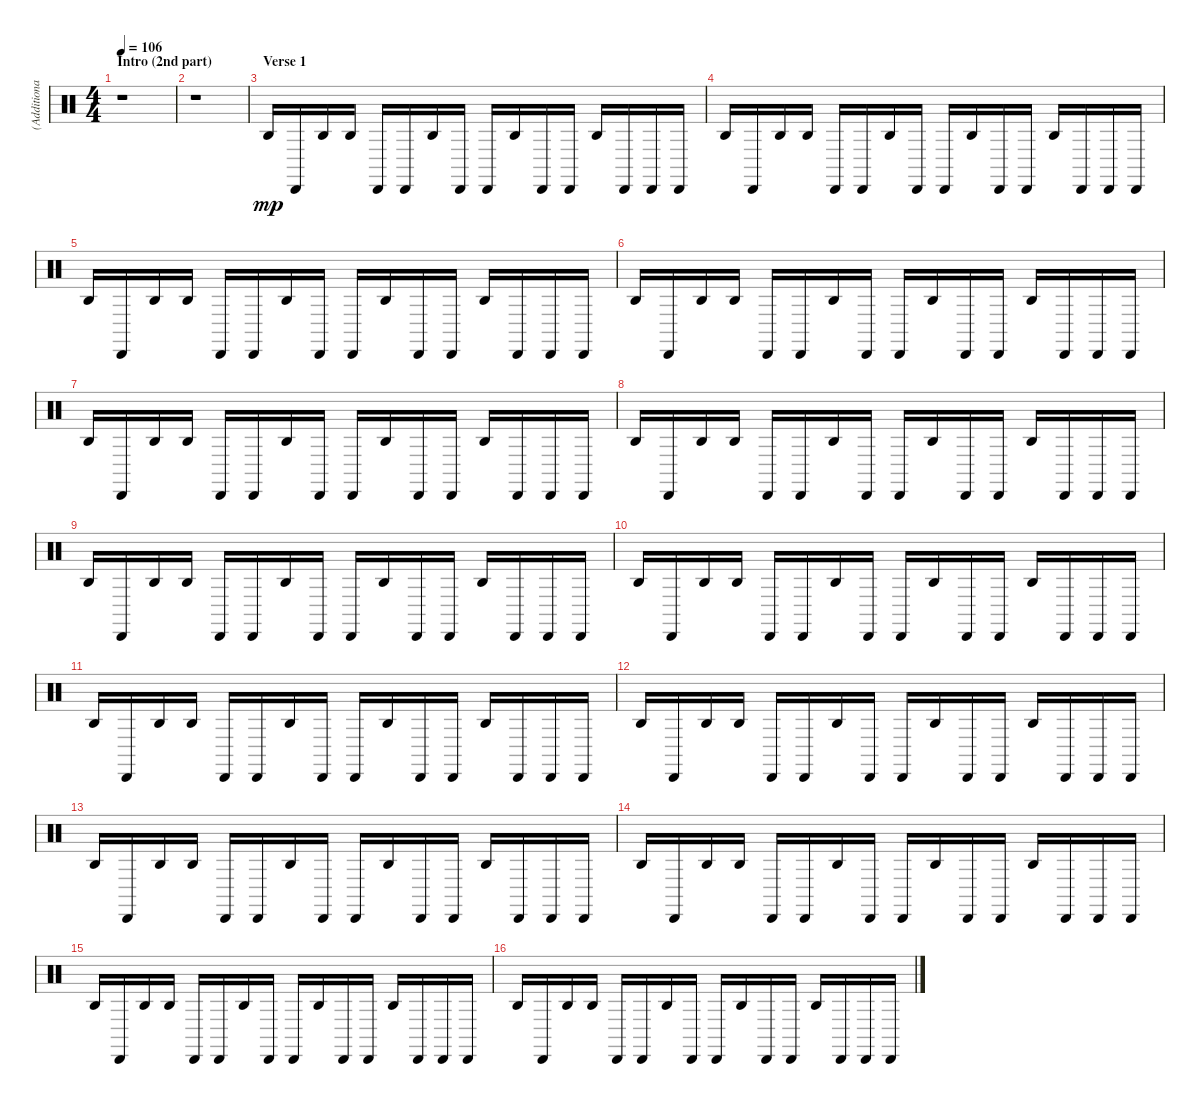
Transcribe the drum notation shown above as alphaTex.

\track ("(Additional Percussions)" "(Additiona") {instrument percussion}
\staff {score}
\articulation defaults
\ts (4 4)
\section ("" "Intro (2nd part)")
\tempo 106
\clef neutral
\ks c
r.1{dy mp} |
r.1 |
\section ("" "Verse 1")
"Agogo high (hit)".16 "Cabasa (hit)".16 "Agogo high (hit)".16 "Agogo high (hit)".16 "Cabasa (hit)".16 "Cabasa (hit)".16 "Agogo high (hit)".16 "Cabasa (hit)".16 "Cabasa (hit)".16 "Agogo high (hit)".16 "Cabasa (hit)".16 "Cabasa (hit)".16 "Agogo high (hit)".16 "Cabasa (hit)".16 "Cabasa (hit)".16 "Cabasa (hit)".16 |
"Agogo high (hit)".16 "Cabasa (hit)".16 "Agogo high (hit)".16 "Agogo high (hit)".16 "Cabasa (hit)".16 "Cabasa (hit)".16 "Agogo high (hit)".16 "Cabasa (hit)".16 "Cabasa (hit)".16 "Agogo high (hit)".16 "Cabasa (hit)".16 "Cabasa (hit)".16 "Agogo high (hit)".16 "Cabasa (hit)".16 "Cabasa (hit)".16 "Cabasa (hit)".16 |
"Agogo high (hit)".16 "Cabasa (hit)".16 "Agogo high (hit)".16 "Agogo high (hit)".16 "Cabasa (hit)".16 "Cabasa (hit)".16 "Agogo high (hit)".16 "Cabasa (hit)".16 "Cabasa (hit)".16 "Agogo high (hit)".16 "Cabasa (hit)".16 "Cabasa (hit)".16 "Agogo high (hit)".16 "Cabasa (hit)".16 "Cabasa (hit)".16 "Cabasa (hit)".16 |
"Agogo high (hit)".16 "Cabasa (hit)".16 "Agogo high (hit)".16 "Agogo high (hit)".16 "Cabasa (hit)".16 "Cabasa (hit)".16 "Agogo high (hit)".16 "Cabasa (hit)".16 "Cabasa (hit)".16 "Agogo high (hit)".16 "Cabasa (hit)".16 "Cabasa (hit)".16 "Agogo high (hit)".16 "Cabasa (hit)".16 "Cabasa (hit)".16 "Cabasa (hit)".16 |
"Agogo high (hit)".16 "Cabasa (hit)".16 "Agogo high (hit)".16 "Agogo high (hit)".16 "Cabasa (hit)".16 "Cabasa (hit)".16 "Agogo high (hit)".16 "Cabasa (hit)".16 "Cabasa (hit)".16 "Agogo high (hit)".16 "Cabasa (hit)".16 "Cabasa (hit)".16 "Agogo high (hit)".16 "Cabasa (hit)".16 "Cabasa (hit)".16 "Cabasa (hit)".16 |
"Agogo high (hit)".16 "Cabasa (hit)".16 "Agogo high (hit)".16 "Agogo high (hit)".16 "Cabasa (hit)".16 "Cabasa (hit)".16 "Agogo high (hit)".16 "Cabasa (hit)".16 "Cabasa (hit)".16 "Agogo high (hit)".16 "Cabasa (hit)".16 "Cabasa (hit)".16 "Agogo high (hit)".16 "Cabasa (hit)".16 "Cabasa (hit)".16 "Cabasa (hit)".16 |
"Agogo high (hit)".16 "Cabasa (hit)".16 "Agogo high (hit)".16 "Agogo high (hit)".16 "Cabasa (hit)".16 "Cabasa (hit)".16 "Agogo high (hit)".16 "Cabasa (hit)".16 "Cabasa (hit)".16 "Agogo high (hit)".16 "Cabasa (hit)".16 "Cabasa (hit)".16 "Agogo high (hit)".16 "Cabasa (hit)".16 "Cabasa (hit)".16 "Cabasa (hit)".16 |
"Agogo high (hit)".16 "Cabasa (hit)".16 "Agogo high (hit)".16 "Agogo high (hit)".16 "Cabasa (hit)".16 "Cabasa (hit)".16 "Agogo high (hit)".16 "Cabasa (hit)".16 "Cabasa (hit)".16 "Agogo high (hit)".16 "Cabasa (hit)".16 "Cabasa (hit)".16 "Agogo high (hit)".16 "Cabasa (hit)".16 "Cabasa (hit)".16 "Cabasa (hit)".16 |
"Agogo high (hit)".16 "Cabasa (hit)".16 "Agogo high (hit)".16 "Agogo high (hit)".16 "Cabasa (hit)".16 "Cabasa (hit)".16 "Agogo high (hit)".16 "Cabasa (hit)".16 "Cabasa (hit)".16 "Agogo high (hit)".16 "Cabasa (hit)".16 "Cabasa (hit)".16 "Agogo high (hit)".16 "Cabasa (hit)".16 "Cabasa (hit)".16 "Cabasa (hit)".16 |
"Agogo high (hit)".16 "Cabasa (hit)".16 "Agogo high (hit)".16 "Agogo high (hit)".16 "Cabasa (hit)".16 "Cabasa (hit)".16 "Agogo high (hit)".16 "Cabasa (hit)".16 "Cabasa (hit)".16 "Agogo high (hit)".16 "Cabasa (hit)".16 "Cabasa (hit)".16 "Agogo high (hit)".16 "Cabasa (hit)".16 "Cabasa (hit)".16 "Cabasa (hit)".16 |
"Agogo high (hit)".16 "Cabasa (hit)".16 "Agogo high (hit)".16 "Agogo high (hit)".16 "Cabasa (hit)".16 "Cabasa (hit)".16 "Agogo high (hit)".16 "Cabasa (hit)".16 "Cabasa (hit)".16 "Agogo high (hit)".16 "Cabasa (hit)".16 "Cabasa (hit)".16 "Agogo high (hit)".16 "Cabasa (hit)".16 "Cabasa (hit)".16 "Cabasa (hit)".16 |
"Agogo high (hit)".16 "Cabasa (hit)".16 "Agogo high (hit)".16 "Agogo high (hit)".16 "Cabasa (hit)".16 "Cabasa (hit)".16 "Agogo high (hit)".16 "Cabasa (hit)".16 "Cabasa (hit)".16 "Agogo high (hit)".16 "Cabasa (hit)".16 "Cabasa (hit)".16 "Agogo high (hit)".16 "Cabasa (hit)".16 "Cabasa (hit)".16 "Cabasa (hit)".16 |
"Agogo high (hit)".16 "Cabasa (hit)".16 "Agogo high (hit)".16 "Agogo high (hit)".16 "Cabasa (hit)".16 "Cabasa (hit)".16 "Agogo high (hit)".16 "Cabasa (hit)".16 "Cabasa (hit)".16 "Agogo high (hit)".16 "Cabasa (hit)".16 "Cabasa (hit)".16 "Agogo high (hit)".16 "Cabasa (hit)".16 "Cabasa (hit)".16 "Cabasa (hit)".16 |
"Agogo high (hit)".16 "Cabasa (hit)".16 "Agogo high (hit)".16 "Agogo high (hit)".16 "Cabasa (hit)".16 "Cabasa (hit)".16 "Agogo high (hit)".16 "Cabasa (hit)".16 "Cabasa (hit)".16 "Agogo high (hit)".16 "Cabasa (hit)".16 "Cabasa (hit)".16 "Agogo high (hit)".16 "Cabasa (hit)".16 "Cabasa (hit)".16 "Cabasa (hit)".16
